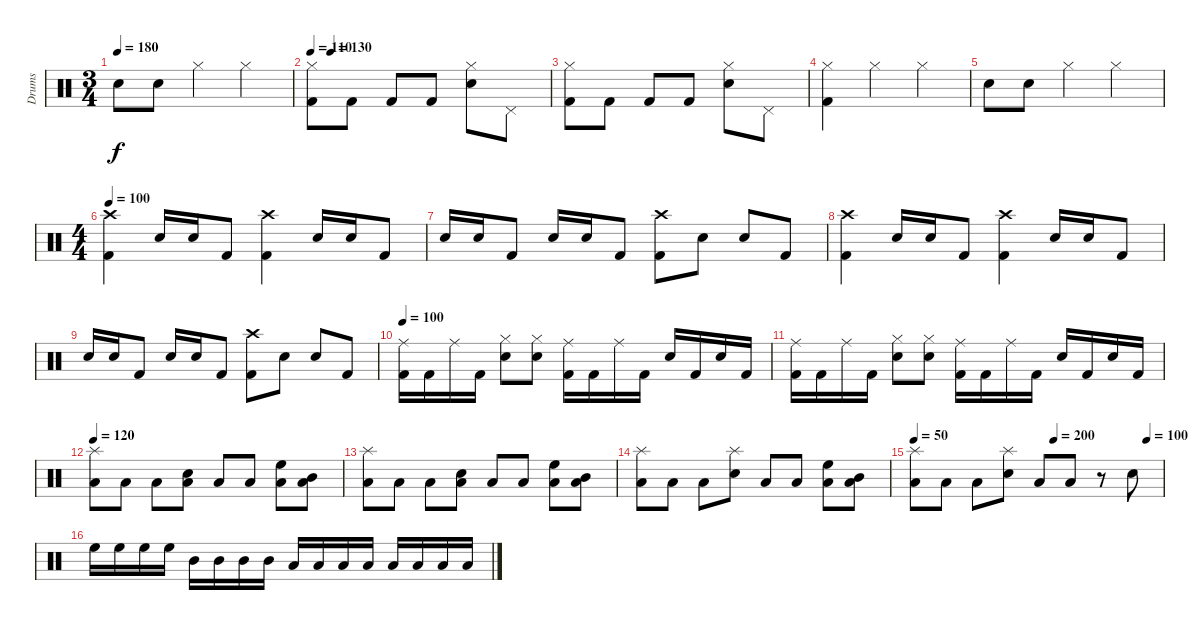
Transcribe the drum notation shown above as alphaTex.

\track ("Drums" "Drums") {instrument percussion}
\staff {score}
\articulation defaults
\ts (3 4)
\tempo 180
\clef neutral
\ks c "Snare (hit) 2".8{dy f} "Snare (hit) 2".8 "Hi-Hat (closed)".4 "Hi-Hat (closed)".4
|
\tempo 110
\tempo (130 0.08333333333333333)
("Hi-Hat (closed)" "Kick (hit) 2").8 "Kick (hit) 2".8 "Kick (hit) 2".8 "Kick (hit) 2".8 ("Hi-Hat (closed)" "Snare (hit) 2").8 "Pedal Hi-Hat (hit)".8 |
("Hi-Hat (closed)" "Kick (hit) 2").8 "Kick (hit) 2".8 "Kick (hit) 2".8 "Kick (hit) 2".8 ("Hi-Hat (closed)" "Snare (hit) 2").8 "Pedal Hi-Hat (hit)".8 |
("Hi-Hat (closed)" "Kick (hit) 2").4 "Hi-Hat (closed)".4 "Hi-Hat (closed)".4 |
"Snare (hit) 2".8 "Snare (hit) 2".8 "Hi-Hat (closed)".4 "Hi-Hat (closed)".4 |
\ts (4 4)
\tempo 100
("Kick (hit) 2" "Crash high (hit)").4 "Snare (hit) 2".16 "Snare (hit) 2".16 "Kick (hit) 2".8 ("Crash high (hit)" "Kick (hit) 2").4 "Snare (hit) 2".16 "Snare (hit) 2".16 "Kick (hit) 2".8 |
"Snare (hit) 2".16 "Snare (hit) 2".16 "Kick (hit) 2".8 "Snare (hit) 2".16 "Snare (hit) 2".16 "Kick (hit) 2".8 ("Crash high (hit)" "Kick (hit) 2").8 "Snare (hit) 2".8 "Snare (hit) 2".8 "Kick (hit) 2".8 |
("Kick (hit) 2" "Crash high (hit)").4 "Snare (hit) 2".16 "Snare (hit) 2".16 "Kick (hit) 2".8 ("Crash high (hit)" "Kick (hit) 2").4 "Snare (hit) 2".16 "Snare (hit) 2".16 "Kick (hit) 2".8 |
"Snare (hit) 2".16 "Snare (hit) 2".16 "Kick (hit) 2".8 "Snare (hit) 2".16 "Snare (hit) 2".16 "Kick (hit) 2".8 ("Crash high (hit)" "Kick (hit) 2").8 "Snare (hit) 2".8 "Snare (hit) 2".8 "Kick (hit) 2".8 |
\tempo 100
("Ride (middle)" "Kick (hit) 2").16 "Kick (hit) 2".16 "Ride (middle)".16 "Kick (hit) 2".16 ("Hi-Hat (closed)" "Snare (hit) 2").8 ("Snare (hit) 2" "Hi-Hat (closed)").8 ("Ride (middle)" "Kick (hit) 2").16 "Kick (hit) 2".16 "Ride (middle)".16 "Kick (hit) 2".16 "Snare (hit) 2".16 "Kick (hit) 2".16 "Snare (hit) 2".16 "Kick (hit) 2".16 |
("Ride (middle)" "Kick (hit) 2").16 "Kick (hit) 2".16 "Ride (middle)".16 "Kick (hit) 2".16 ("Hi-Hat (closed)" "Snare (hit) 2").8 ("Snare (hit) 2" "Hi-Hat (closed)").8 ("Ride (middle)" "Kick (hit) 2").16 "Kick (hit) 2".16 "Ride (middle)".16 "Kick (hit) 2".16 "Snare (hit) 2".16 "Kick (hit) 2".16 "Snare (hit) 2".16 "Kick (hit) 2".16 |
\tempo 120
("Low Tom (hit)" "Splash (hit)").8 "Low Tom (hit)".8 "Low Tom (hit)".8 ("Snare (hit) 2" "Low Tom (hit)").8 "Low Tom (hit)".8 "Low Tom (hit)".8 ("High Floor Tom (hit)" "Low Tom (hit)").8 ("Mid Tom (hit)" "Low Tom (hit)").8 |
("Low Tom (hit)" "Splash (hit)").8 "Low Tom (hit)".8 "Low Tom (hit)".8 ("Snare (hit) 2" "Low Tom (hit)").8 "Low Tom (hit)".8 "Low Tom (hit)".8 ("High Floor Tom (hit)" "Low Tom (hit)").8 ("Mid Tom (hit)" "Low Tom (hit)").8 |
("Low Tom (hit)" "Splash (hit)").8 "Low Tom (hit)".8 "Low Tom (hit)".8 ("Snare (hit) 2" "Splash (hit)").8 "Low Tom (hit)".8 "Low Tom (hit)".8 ("High Floor Tom (hit)" "Low Tom (hit)").8 ("Mid Tom (hit)" "Low Tom (hit)").8 |
\tempo (100 0.9375)
\tempo 50
\tempo (200 0.5625)
("Low Tom (hit)" "Splash (hit)").8 "Low Tom (hit)".8 "Low Tom (hit)".8 ("Snare (hit) 2" "Splash (hit)").8 "Low Tom (hit)".8 "Low Tom (hit)".8 r.8 "Snare (hit) 2".8 |
"High Floor Tom (hit)".16 "High Floor Tom (hit)".16 "High Floor Tom (hit)".16 "High Floor Tom (hit)".16 "Mid Tom (hit)".16 "Mid Tom (hit)".16 "Mid Tom (hit)".16 "Mid Tom (hit)".16 "Low Tom (hit)".16 "Low Tom (hit)".16 "Low Tom (hit)".16 "Low Tom (hit)".16 "Low Floor Tom (hit)".16 "Low Floor Tom (hit)".16 "Low Floor Tom (hit)".16 "Low Floor Tom (hit)".16
